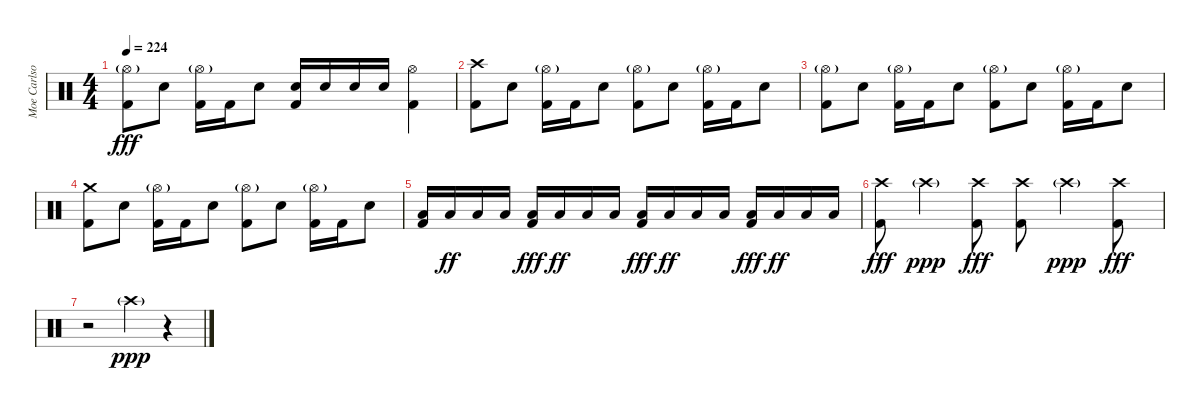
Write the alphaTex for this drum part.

\track ("Moe Carlson" "Moe Carlso") {instrument percussion}
\staff {score}
\articulation defaults
\ts (4 4)
\tempo 224
\clef neutral
\ks c
("Hi-Hat (open)"{g} "Kick (hit) 2").8{dy fff} "Electric Snare (hit)".8 ("Hi-Hat (open)"{g} "Kick (hit) 2").16 "Kick (hit) 2".16 "Electric Snare (hit)".8 ("Electric Snare (hit)" "Kick (hit) 2").16 "Electric Snare (hit)".16 "Electric Snare (hit)".16 "Electric Snare (hit)".16 ("Hi-Hat (open)" "Kick (hit) 2").4 |
("Crash high (hit)" "Kick (hit) 2").8 "Electric Snare (hit)".8 ("Hi-Hat (open)"{g} "Kick (hit) 2").16 "Kick (hit) 2".16 "Electric Snare (hit)".8 ("Hi-Hat (open)"{g} "Kick (hit) 2").8 "Electric Snare (hit)".8 ("Hi-Hat (open)"{g} "Kick (hit) 2").16 "Kick (hit) 2".16 "Electric Snare (hit)".8 |
("Hi-Hat (open)"{g} "Kick (hit) 2").8 "Electric Snare (hit)".8 ("Hi-Hat (open)"{g} "Kick (hit) 2").16 "Kick (hit) 2".16 "Electric Snare (hit)".8 ("Hi-Hat (open)"{g} "Kick (hit) 2").8 "Electric Snare (hit)".8 ("Hi-Hat (open)"{g} "Kick (hit) 2").16 "Kick (hit) 2".16 "Electric Snare (hit)".8 |
("Crash medium (hit)" "Kick (hit) 2").8 "Electric Snare (hit)".8 ("Hi-Hat (open)"{g} "Kick (hit) 2").16 "Kick (hit) 2".16 "Electric Snare (hit)".8 ("Hi-Hat (open)"{g} "Kick (hit) 2").8 "Electric Snare (hit)".8 ("Hi-Hat (open)"{g} "Kick (hit) 2").16 "Kick (hit) 2".16 "Electric Snare (hit)".8 |
("Low Floor Tom (hit)" "Kick (hit) 2").16 "Low Floor Tom (hit)".16{dy ff} "Low Floor Tom (hit)".16 "Low Floor Tom (hit)".16 ("Low Floor Tom (hit)" "Kick (hit) 2").16{dy fff} "Low Floor Tom (hit)".16{dy ff} "Low Floor Tom (hit)".16 "Low Floor Tom (hit)".16 ("Low Floor Tom (hit)" "Kick (hit) 2").16{dy fff} "Low Floor Tom (hit)".16{dy ff} "Low Floor Tom (hit)".16 "Low Floor Tom (hit)".16 ("Low Floor Tom (hit)" "Kick (hit) 2").16{dy fff} "Low Floor Tom (hit)".16{dy ff} "Low Floor Tom (hit)".16 "Low Floor Tom (hit)".16 |
("Crash high (hit)" "Kick (hit) 2").8{dy fff} "Crash high (hit)"{g}.4{dy ppp} ("Crash high (hit)" "Kick (hit) 2").8{dy fff} ("Crash high (hit)" "Kick (hit) 2").8 "Crash high (hit)"{g}.4{dy ppp} ("Crash high (hit)" "Kick (hit) 2").8{dy fff} |
r.2 "Crash high (hit)"{g}.4{dy ppp} r.4
